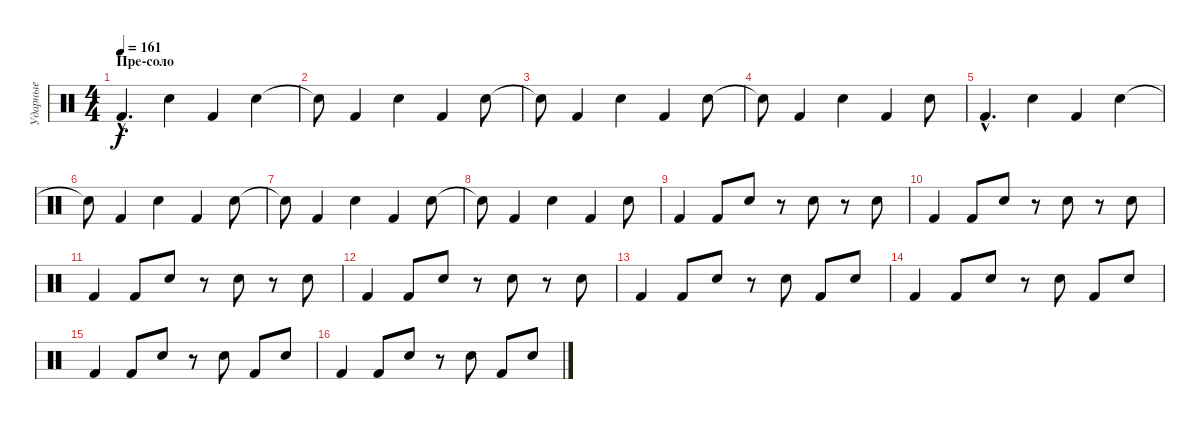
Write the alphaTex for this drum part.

\track ("Ударные" "Ударные") {instrument percussion}
\staff {score}
\articulation defaults
\ts (4 4)
\section ("" "Пре-соло")
\tempo 161
\clef neutral
\ks c "Kick (hit) 2"{hac}.4{d dy f} "Snare (hit) 2".4 "Kick (hit) 2".4 "Snare (hit) 2".4
|
"Snare (hit)"{t}.8 "Kick (hit) 2".4 "Snare (hit) 2".4 "Kick (hit) 2".4 "Snare (hit) 2".8 |
"Snare (hit)"{t}.8 "Kick (hit) 2".4 "Snare (hit) 2".4 "Kick (hit) 2".4 "Snare (hit) 2".8 |
"Snare (hit)"{t}.8 "Kick (hit) 2".4 "Snare (hit) 2".4 "Kick (hit) 2".4 "Snare (hit) 2".8 |
"Kick (hit) 2"{hac}.4{d} "Snare (hit) 2".4 "Kick (hit) 2".4 "Snare (hit) 2".4 |
"Snare (hit)"{t}.8 "Kick (hit) 2".4 "Snare (hit) 2".4 "Kick (hit) 2".4 "Snare (hit) 2".8 |
"Snare (hit)"{t}.8 "Kick (hit) 2".4 "Snare (hit) 2".4 "Kick (hit) 2".4 "Snare (hit) 2".8 |
"Snare (hit)"{t}.8 "Kick (hit) 2".4 "Snare (hit) 2".4 "Kick (hit) 2".4 "Snare (hit) 2".8 |
"Kick (hit) 2".4 "Kick (hit) 2".8 "Snare (hit) 2".8 r.8 "Snare (hit) 2".8 r.8 "Snare (hit) 2".8 |
"Kick (hit) 2".4 "Kick (hit) 2".8 "Snare (hit) 2".8 r.8 "Snare (hit) 2".8 r.8 "Snare (hit) 2".8 |
"Kick (hit) 2".4 "Kick (hit) 2".8 "Snare (hit) 2".8 r.8 "Snare (hit) 2".8 r.8 "Snare (hit) 2".8 |
"Kick (hit) 2".4 "Kick (hit) 2".8 "Snare (hit) 2".8 r.8 "Snare (hit) 2".8 r.8 "Snare (hit) 2".8 |
"Kick (hit) 2".4 "Kick (hit) 2".8 "Snare (hit) 2".8 r.8 "Snare (hit) 2".8 "Kick (hit) 2".8 "Snare (hit) 2".8 |
"Kick (hit) 2".4 "Kick (hit) 2".8 "Snare (hit) 2".8 r.8 "Snare (hit) 2".8 "Kick (hit) 2".8 "Snare (hit) 2".8 |
"Kick (hit) 2".4 "Kick (hit) 2".8 "Snare (hit) 2".8 r.8 "Snare (hit) 2".8 "Kick (hit) 2".8 "Snare (hit) 2".8 |
"Kick (hit) 2".4 "Kick (hit) 2".8 "Snare (hit) 2".8 r.8 "Snare (hit) 2".8 "Kick (hit) 2".8 "Snare (hit) 2".8
